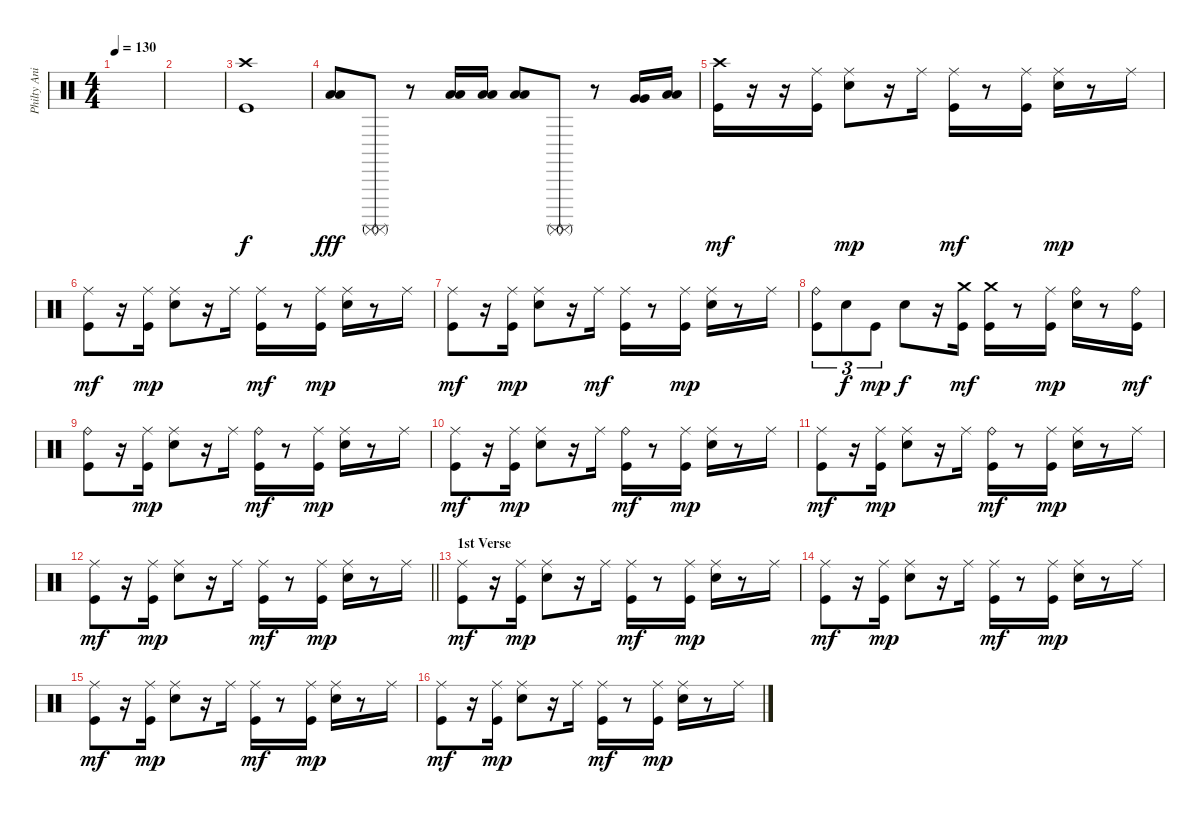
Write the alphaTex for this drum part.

\track ("Philty Animal Taylor" "Philty Ani") {instrument percussion}
\staff {score}
\articulation defaults
\ts (4 4)
\tempo 130
\clef neutral
\ks c
|
|
("Crash high (hit)" "Kick (hit)").1 |
("Low Tom (hit)" "Low Tom (hit)").8{dy fff balance 4} ("Surdo (mute)" "Surdo (mute)").8 r.8{balance 12} ("Low Tom (hit)" "Low Tom (hit)").16 ("Low Tom (hit)" "Low Tom (hit)").16 ("Low Tom (hit)" "Low Tom (hit)").8 ("Surdo (mute)" "Surdo (mute)").8 r.8 ("Very Low Tom (hit)" "Very Low Tom (hit)").16 ("Low Floor Tom (hit)" "Low Floor Tom (hit)").16 |
("Crash high (hit)" "Kick (hit)").16{dy mf balance 8} r.16 r.16 ("Ride (middle)" "Kick (hit)").16 ("Ride (middle)" "Snare (hit) 2").8{dy mp} r.16 "Ride (middle)".16 ("Ride (middle)" "Kick (hit)").16{dy mf} r.8 ("Ride (middle)" "Kick (hit)").16 ("Ride (middle)" "Snare (hit) 2").16{dy mp} r.8 "Ride (middle)".16 |
("Ride (middle)" "Kick (hit)").8{dy mf} r.16 ("Ride (middle)" "Kick (hit)").16{dy mp} ("Ride (middle)" "Snare (hit) 2").8 r.16 "Ride (middle)".16 ("Ride (middle)" "Kick (hit)").16{dy mf} r.8 ("Ride (middle)" "Kick (hit)").16{dy mp} ("Ride (middle)" "Snare (hit) 2").16 r.8 "Ride (middle)".16 |
("Ride (middle)" "Kick (hit)").8{dy mf} r.16 ("Ride (middle)" "Kick (hit)").16{dy mp} ("Ride (middle)" "Snare (hit) 2").8 r.16 "Ride (middle)".16{dy mf} ("Ride (middle)" "Kick (hit)").16 r.8 ("Ride (middle)" "Kick (hit)").16{dy mp} ("Ride (middle)" "Snare (hit) 2").16 r.8 "Ride (middle)".16 |
("Ride (bell)" "Kick (hit)").8{tu (3 2)} "Snare (hit) 2".8{tu (3 2) dy f} "Kick (hit)".8{tu (3 2) dy mp} "Snare (hit) 2".8{dy f} r.16 ("Crash medium (hit)" "Kick (hit)").16{dy mf} ("Crash medium (hit)" "Kick (hit)").16 r.8 ("Ride (middle)" "Kick (hit)").16{dy mp} ("Ride (bell)" "Snare (hit) 2").16 r.8 ("Ride (bell)" "Kick (hit)").16{dy mf} |
("Ride (bell)" "Kick (hit)").8 r.16 ("Ride (middle)" "Kick (hit)").16{dy mp} ("Ride (middle)" "Snare (hit) 2").8 r.16 "Ride (middle)".16 ("Ride (bell)" "Kick (hit)").16{dy mf} r.8 ("Ride (middle)" "Kick (hit)").16{dy mp} ("Ride (middle)" "Snare (hit) 2").16 r.8 "Ride (middle)".16 |
("Ride (middle)" "Kick (hit)").8{dy mf} r.16 ("Ride (middle)" "Kick (hit)").16{dy mp} ("Ride (middle)" "Snare (hit) 2").8 r.16 "Ride (middle)".16 ("Ride (bell)" "Kick (hit)").16{dy mf} r.8 ("Ride (middle)" "Kick (hit)").16{dy mp} ("Ride (middle)" "Snare (hit) 2").16 r.8 "Ride (middle)".16 |
("Ride (middle)" "Kick (hit)").8{dy mf} r.16 ("Ride (middle)" "Kick (hit)").16{dy mp} ("Ride (middle)" "Snare (hit) 2").8 r.16 "Ride (middle)".16 ("Ride (bell)" "Kick (hit)").16{dy mf} r.8 ("Ride (middle)" "Kick (hit)").16{dy mp} ("Ride (middle)" "Snare (hit) 2").16 r.8 "Ride (middle)".16 |
\barLineRight lightlight
("Ride (middle)" "Kick (hit)").8{dy mf} r.16 ("Ride (middle)" "Kick (hit)").16{dy mp} ("Ride (middle)" "Snare (hit) 2").8 r.16 "Ride (middle)".16 ("Ride (middle)" "Kick (hit)").16{dy mf} r.8 ("Ride (middle)" "Kick (hit)").16{dy mp} ("Ride (middle)" "Snare (hit) 2").16 r.8 "Ride (middle)".16 |
\section ("" "1st Verse")
("Ride (middle)" "Kick (hit)").8{dy mf} r.16 ("Ride (middle)" "Kick (hit)").16{dy mp} ("Ride (middle)" "Snare (hit) 2").8 r.16 "Ride (middle)".16 ("Ride (middle)" "Kick (hit)").16{dy mf} r.8 ("Ride (middle)" "Kick (hit)").16{dy mp} ("Ride (middle)" "Snare (hit) 2").16 r.8 "Ride (middle)".16 |
("Ride (middle)" "Kick (hit)").8{dy mf} r.16 ("Ride (middle)" "Kick (hit)").16{dy mp} ("Ride (middle)" "Snare (hit) 2").8 r.16 "Ride (middle)".16 ("Ride (middle)" "Kick (hit)").16{dy mf} r.8 ("Ride (middle)" "Kick (hit)").16{dy mp} ("Ride (middle)" "Snare (hit) 2").16 r.8 "Ride (middle)".16 |
("Ride (middle)" "Kick (hit)").8{dy mf} r.16 ("Ride (middle)" "Kick (hit)").16{dy mp} ("Ride (middle)" "Snare (hit) 2").8 r.16 "Ride (middle)".16 ("Ride (middle)" "Kick (hit)").16{dy mf} r.8 ("Ride (middle)" "Kick (hit)").16{dy mp} ("Ride (middle)" "Snare (hit) 2").16 r.8 "Ride (middle)".16 |
("Ride (middle)" "Kick (hit)").8{dy mf} r.16 ("Ride (middle)" "Kick (hit)").16{dy mp} ("Ride (middle)" "Snare (hit) 2").8 r.16 "Ride (middle)".16 ("Ride (middle)" "Kick (hit)").16{dy mf} r.8 ("Ride (middle)" "Kick (hit)").16{dy mp} ("Ride (middle)" "Snare (hit) 2").16 r.8 "Ride (middle)".16
